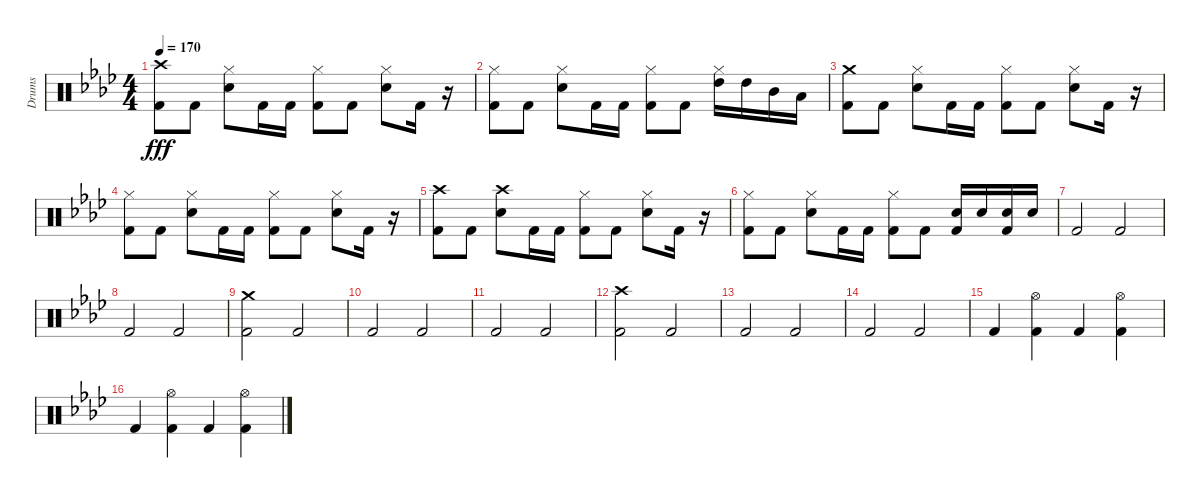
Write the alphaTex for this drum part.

\track ("Drums" "Drums") {instrument percussion}
\staff {score}
\articulation defaults
\ts (4 4)
\tempo 170
\clef neutral
\ks fminor
("Crash high (hit)" "Kick (hit) 2").8{dy fff} "Kick (hit) 2".8 ("Hi-Hat (closed)" "Snare (hit) 2").8 "Kick (hit) 2".16 "Kick (hit) 2".16 ("Hi-Hat (closed)" "Kick (hit) 2").8 "Kick (hit) 2".8 ("Hi-Hat (closed)" "Snare (hit) 2").8 "Kick (hit) 2".16 r.16 |
("Hi-Hat (closed)" "Kick (hit) 2").8 "Kick (hit) 2".8 ("Hi-Hat (closed)" "Snare (hit) 2").8 "Kick (hit) 2".16 "Kick (hit) 2".16 ("Hi-Hat (closed)" "Kick (hit) 2").8 "Kick (hit) 2".8 ("Hi-Hat (closed)" "High Tom (hit)").16 "High Tom (hit)".16 "Mid Tom (hit)".16 "Low Tom (hit)".16 |
("Crash medium (hit)" "Kick (hit) 2").8 "Kick (hit) 2".8 ("Hi-Hat (closed)" "Snare (hit) 2").8 "Kick (hit) 2".16 "Kick (hit) 2".16 ("Hi-Hat (closed)" "Kick (hit) 2").8 "Kick (hit) 2".8 ("Hi-Hat (closed)" "Snare (hit) 2").8 "Kick (hit) 2".16 r.16 |
("Hi-Hat (closed)" "Kick (hit) 2").8 "Kick (hit) 2".8 ("Hi-Hat (closed)" "Snare (hit) 2").8 "Kick (hit) 2".16 "Kick (hit) 2".16 ("Hi-Hat (closed)" "Kick (hit) 2").8 "Kick (hit) 2".8 ("Hi-Hat (closed)" "Snare (hit) 2").8 "Kick (hit) 2".16 r.16 |
("Crash high (hit)" "Kick (hit) 2").8 "Kick (hit) 2".8 ("Crash high (hit)" "Snare (hit) 2").8 "Kick (hit) 2".16 "Kick (hit) 2".16 ("Hi-Hat (closed)" "Kick (hit) 2").8 "Kick (hit) 2".8 ("Hi-Hat (closed)" "Snare (hit) 2").8 "Kick (hit) 2".16 r.16 |
("Hi-Hat (closed)" "Kick (hit) 2").8 "Kick (hit) 2".8 ("Hi-Hat (closed)" "Snare (hit) 2").8 "Kick (hit) 2".16 "Kick (hit) 2".16 ("Hi-Hat (closed)" "Kick (hit) 2").8 "Kick (hit) 2".8 ("Snare (hit) 2" "Kick (hit) 2").16 "Snare (hit) 2".16 ("Snare (hit) 2" "Kick (hit) 2").16 "Snare (hit) 2".16 |
"Kick (hit) 2".2 "Kick (hit) 2".2 |
"Kick (hit) 2".2 "Kick (hit) 2".2 |
("Crash medium (hit)" "Kick (hit) 2").2 "Kick (hit) 2".2 |
"Kick (hit) 2".2 "Kick (hit) 2".2 |
"Kick (hit) 2".2 "Kick (hit) 2".2 |
("Crash high (hit)" "Kick (hit) 2").2 "Kick (hit) 2".2 |
"Kick (hit) 2".2 "Kick (hit) 2".2 |
"Kick (hit) 2".2 "Kick (hit) 2".2 |
"Kick (hit) 2".4 ("Hi-Hat (open)" "Kick (hit) 2").4 "Kick (hit) 2".4 ("Hi-Hat (open)" "Kick (hit) 2").4 |
"Kick (hit) 2".4 ("Hi-Hat (open)" "Kick (hit) 2").4 "Kick (hit) 2".4 ("Hi-Hat (open)" "Kick (hit) 2").4
